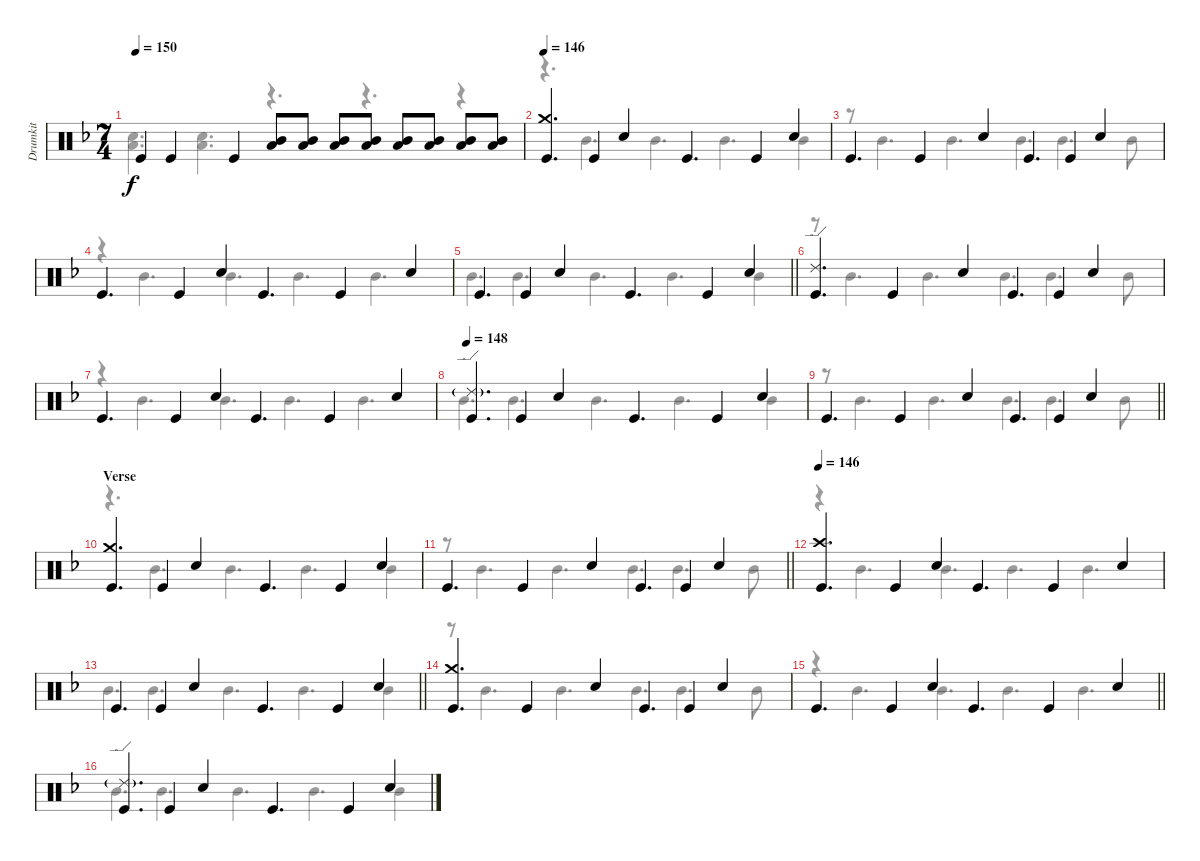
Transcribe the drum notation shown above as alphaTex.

\track ("Drumkit" "Drumkit") {instrument percussion}
\staff {score}
\articulation defaults
\voice
\ts (7 4)
\tempo 150
\clef neutral
\ks dminor "Kick (hit)".4{dy f} "Kick (hit)".4 "Kick (hit)".4
("Mid Tom (hit)" "Low Floor Tom (hit)").8 ("Mid Tom (hit)" "Low Floor Tom (hit)").8 ("Mid Tom (hit)" "Low Floor Tom (hit)").8 ("Mid Tom (hit)" "Low Floor Tom (hit)").8 ("Mid Tom (hit)" "Low Floor Tom (hit)").8 ("Mid Tom (hit)" "Low Floor Tom (hit)").8 ("Mid Tom (hit)" "Low Floor Tom (hit)").8 ("Mid Tom (hit)" "Low Floor Tom (hit)").8 |
\section ("" "")
\tempo 146
("Kick (hit)" "Crash medium (hit)").4{d} "Kick (hit)".4 "Snare (hit) 2".4 "Kick (hit)".4{d} "Kick (hit)".4 "Snare (hit) 2".4 |
"Kick (hit)".4{d} "Kick (hit)".4 "Snare (hit) 2".4 "Kick (hit)".4{d} "Kick (hit)".4 "Snare (hit) 2".4 |
"Kick (hit)".4{d} "Kick (hit)".4 "Snare (hit) 2".4 "Kick (hit)".4{d} "Kick (hit)".4 "Snare (hit) 2".4 |
\barLineRight lightlight "Kick (hit)".4{d} "Kick (hit)".4 "Snare (hit) 2".4 "Kick (hit)".4{d} "Kick (hit)".4 "Snare (hit) 2".4
|
("Kick (hit)" "Ride (edge) 2").4{d} "Kick (hit)".4 "Snare (hit) 2".4 "Kick (hit)".4{d} "Kick (hit)".4 "Snare (hit) 2".4 |
"Kick (hit)".4{d} "Kick (hit)".4 "Snare (hit) 2".4 "Kick (hit)".4{d} "Kick (hit)".4 "Snare (hit) 2".4 |
\tempo 148
("Kick (hit)" "Ride (edge) 2"{g}).4{d} "Kick (hit)".4 "Snare (hit) 2".4 "Kick (hit)".4{d} "Kick (hit)".4 "Snare (hit) 2".4 |
\barLineRight lightlight "Kick (hit)".4{d} "Kick (hit)".4 "Snare (hit) 2".4 "Kick (hit)".4{d} "Kick (hit)".4 "Snare (hit) 2".4
|
\section ("" "Verse")
("Kick (hit)" "Crash medium (hit)").4{d} "Kick (hit)".4 "Snare (hit) 2".4 "Kick (hit)".4{d} "Kick (hit)".4 "Snare (hit) 2".4 |
\barLineRight lightlight "Kick (hit)".4{d} "Kick (hit)".4 "Snare (hit) 2".4 "Kick (hit)".4{d} "Kick (hit)".4 "Snare (hit) 2".4
|
\tempo 146
("Kick (hit)" "Crash high (hit)").4{d} "Kick (hit)".4 "Snare (hit) 2".4 "Kick (hit)".4{d} "Kick (hit)".4 "Snare (hit) 2".4 |
\barLineRight lightlight "Kick (hit)".4{d} "Kick (hit)".4 "Snare (hit) 2".4 "Kick (hit)".4{d} "Kick (hit)".4 "Snare (hit) 2".4
|
("Kick (hit)" "Crash medium (hit)").4{d} "Kick (hit)".4 "Snare (hit) 2".4 "Kick (hit)".4{d} "Kick (hit)".4 "Snare (hit) 2".4 |
\barLineRight lightlight "Kick (hit)".4{d} "Kick (hit)".4 "Snare (hit) 2".4 "Kick (hit)".4{d} "Kick (hit)".4 "Snare (hit) 2".4
|
("Kick (hit)" "Ride (edge) 2"{g}).4{d} "Kick (hit)".4 "Snare (hit) 2".4 "Kick (hit)".4{d} "Kick (hit)".4 "Snare (hit) 2".4
\voice
\clef neutral
\ottava regular
\simile none
\ks dminor
("Snare (hit) 2" "Low Floor Tom (hit)").4{d dy f} ("Snare (hit) 2" "Low Floor Tom (hit)").4{d} r.4{d} r.4{d} r.4 |
r.4{d} "Mid Tom (hit)".4{d} "Mid Tom (hit)".4{d} "Mid Tom (hit)".4{d} "Mid Tom (hit)".4 |
r.8 "Mid Tom (hit)".4{d} "Mid Tom (hit)".4{d} "Mid Tom (hit)".4{d} "Mid Tom (hit)".4{d} "Mid Tom (hit)".8 |
r.4 "Mid Tom (hit)".4{d} "Mid Tom (hit)".4{d} "Mid Tom (hit)".4{d} "Mid Tom (hit)".4{d} |
\barLineRight lightlight "Mid Tom (hit)".4{d} "Mid Tom (hit)".4{d} "Mid Tom (hit)".4{d} "Mid Tom (hit)".4{d} "Mid Tom (hit)".4
|
r.8 "Mid Tom (hit)".4{d} "Mid Tom (hit)".4{d} "Mid Tom (hit)".4{d} "Mid Tom (hit)".4{d} "Mid Tom (hit)".8 |
r.4 "Mid Tom (hit)".4{d} "Mid Tom (hit)".4{d} "Mid Tom (hit)".4{d} "Mid Tom (hit)".4{d} |
"Mid Tom (hit)".4{d} "Mid Tom (hit)".4{d} "Mid Tom (hit)".4{d} "Mid Tom (hit)".4{d} "Mid Tom (hit)".4 |
\barLineRight lightlight
r.8 "Mid Tom (hit)".4{d} "Mid Tom (hit)".4{d} "Mid Tom (hit)".4{d} "Mid Tom (hit)".4{d} "Mid Tom (hit)".8 |
r.4{d} "Mid Tom (hit)".4{d} "Mid Tom (hit)".4{d} "Mid Tom (hit)".4{d} "Mid Tom (hit)".4 |
\barLineRight lightlight
r.8 "Mid Tom (hit)".4{d} "Mid Tom (hit)".4{d} "Mid Tom (hit)".4{d} "Mid Tom (hit)".4{d} "Mid Tom (hit)".8 |
r.4 "Mid Tom (hit)".4{d} "Mid Tom (hit)".4{d} "Mid Tom (hit)".4{d} "Mid Tom (hit)".4{d} |
\barLineRight lightlight "Mid Tom (hit)".4{d} "Mid Tom (hit)".4{d} "Mid Tom (hit)".4{d} "Mid Tom (hit)".4{d} "Mid Tom (hit)".4
|
r.8 "Mid Tom (hit)".4{d} "Mid Tom (hit)".4{d} "Mid Tom (hit)".4{d} "Mid Tom (hit)".4{d} "Mid Tom (hit)".8 |
\barLineRight lightlight
r.4 "Mid Tom (hit)".4{d} "Mid Tom (hit)".4{d} "Mid Tom (hit)".4{d} "Mid Tom (hit)".4{d} |
"Mid Tom (hit)".4{d} "Mid Tom (hit)".4{d} "Mid Tom (hit)".4{d} "Mid Tom (hit)".4{d} "Mid Tom (hit)".4
